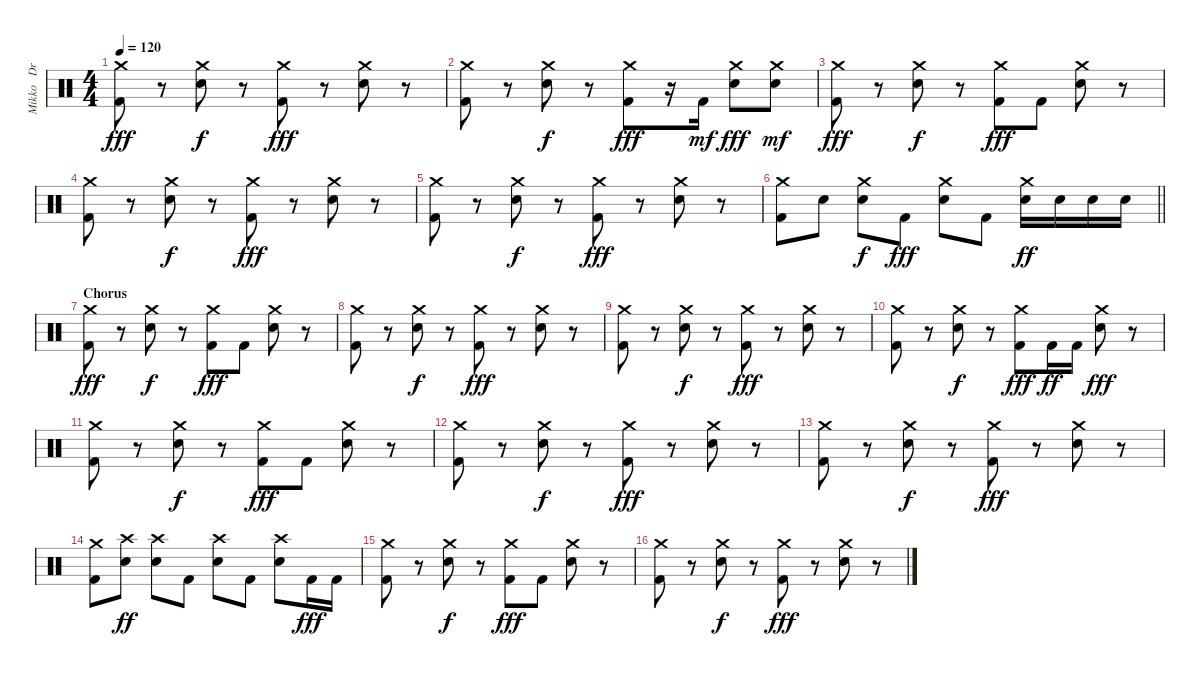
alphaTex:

\track ("Mikko   Drums" "Mikko   Dr") {instrument percussion}
\staff {score}
\articulation defaults
\ts (4 4)
\tempo 120
\clef neutral
\ks c
("Crash medium (hit)" "Kick (hit) 2").8{dy fff} r.8 ("Crash medium (hit)" "Snare (hit) 2").8{dy f} r.8 ("Crash medium (hit)" "Kick (hit) 2").8{dy fff} r.8 ("Crash medium (hit)" "Snare (hit) 2").8 r.8 |
("Crash medium (hit)" "Kick (hit) 2").8 r.8 ("Crash medium (hit)" "Snare (hit) 2").8{dy f} r.8 ("Crash medium (hit)" "Kick (hit) 2").8{dy fff} r.16 "Kick (hit) 2".16{dy mf} ("Crash medium (hit)" "Snare (hit) 2").8{dy fff} ("Crash medium (hit)" "Snare (hit) 2").8{dy mf} |
("Crash medium (hit)" "Kick (hit) 2").8{dy fff} r.8 ("Crash medium (hit)" "Snare (hit) 2").8{dy f} r.8 ("Crash medium (hit)" "Kick (hit) 2").8{dy fff} "Kick (hit) 2".8 ("Crash medium (hit)" "Snare (hit) 2").8 r.8 |
("Crash medium (hit)" "Kick (hit) 2").8 r.8 ("Crash medium (hit)" "Snare (hit) 2").8{dy f} r.8 ("Crash medium (hit)" "Kick (hit) 2").8{dy fff} r.8 ("Crash medium (hit)" "Snare (hit) 2").8 r.8 |
("Crash medium (hit)" "Kick (hit) 2").8 r.8 ("Crash medium (hit)" "Snare (hit) 2").8{dy f} r.8 ("Crash medium (hit)" "Kick (hit) 2").8{dy fff} r.8 ("Crash medium (hit)" "Snare (hit) 2").8 r.8 |
\barLineRight lightlight
("Crash medium (hit)" "Kick (hit) 2").8 "Snare (hit) 2".8 ("Crash medium (hit)" "Snare (hit) 2").8{dy f} "Kick (hit) 2".8{dy fff} ("Crash medium (hit)" "Snare (hit) 2").8 "Kick (hit) 2".8 ("Crash medium (hit)" "Snare (hit) 2").16{dy ff} "Snare (hit) 2".16 "Snare (hit) 2".16 "Snare (hit) 2".16 |
\section ("" "Chorus")
("Crash medium (hit)" "Kick (hit) 2").8{dy fff} r.8 ("Crash medium (hit)" "Snare (hit) 2").8{dy f} r.8 ("Crash medium (hit)" "Kick (hit) 2").8{dy fff} "Kick (hit) 2".8 ("Crash medium (hit)" "Snare (hit) 2").8 r.8 |
("Crash medium (hit)" "Kick (hit) 2").8 r.8 ("Crash medium (hit)" "Snare (hit) 2").8{dy f} r.8 ("Crash medium (hit)" "Kick (hit) 2").8{dy fff} r.8 ("Crash medium (hit)" "Snare (hit) 2").8 r.8 |
("Crash medium (hit)" "Kick (hit) 2").8 r.8 ("Crash medium (hit)" "Snare (hit) 2").8{dy f} r.8 ("Crash medium (hit)" "Kick (hit) 2").8{dy fff} r.8 ("Crash medium (hit)" "Snare (hit) 2").8 r.8 |
("Crash medium (hit)" "Kick (hit) 2").8 r.8 ("Crash medium (hit)" "Snare (hit) 2").8{dy f} r.8 ("Crash medium (hit)" "Kick (hit) 2").8{dy fff} "Kick (hit) 2".16{dy ff} "Kick (hit) 2".16 ("Crash medium (hit)" "Snare (hit) 2").8{dy fff} r.8 |
("Crash medium (hit)" "Kick (hit) 2").8 r.8 ("Crash medium (hit)" "Snare (hit) 2").8{dy f} r.8 ("Crash medium (hit)" "Kick (hit) 2").8{dy fff} "Kick (hit) 2".8 ("Crash medium (hit)" "Snare (hit) 2").8 r.8 |
("Crash medium (hit)" "Kick (hit) 2").8 r.8 ("Crash medium (hit)" "Snare (hit) 2").8{dy f} r.8 ("Crash medium (hit)" "Kick (hit) 2").8{dy fff} r.8 ("Crash medium (hit)" "Snare (hit) 2").8 r.8 |
("Crash medium (hit)" "Kick (hit) 2").8 r.8 ("Crash medium (hit)" "Snare (hit) 2").8{dy f} r.8 ("Crash medium (hit)" "Kick (hit) 2").8{dy fff} r.8 ("Crash medium (hit)" "Snare (hit) 2").8 r.8 |
("Crash medium (hit)" "Kick (hit) 2").8 ("Crash high (hit)" "Snare (hit) 2").8{dy ff} ("Crash high (hit)" "Snare (hit) 2").8 "Kick (hit) 2".8 ("Crash high (hit)" "Snare (hit) 2").8 "Kick (hit) 2".8 ("Crash high (hit)" "Snare (hit) 2").8 "Kick (hit) 2".16{dy fff} "Kick (hit) 2".16 |
("Crash medium (hit)" "Kick (hit) 2").8 r.8 ("Crash medium (hit)" "Snare (hit) 2").8{dy f} r.8 ("Crash medium (hit)" "Kick (hit) 2").8{dy fff} "Kick (hit) 2".8 ("Crash medium (hit)" "Snare (hit) 2").8 r.8 |
("Crash medium (hit)" "Kick (hit) 2").8 r.8 ("Crash medium (hit)" "Snare (hit) 2").8{dy f} r.8 ("Crash medium (hit)" "Kick (hit) 2").8{dy fff} r.8 ("Crash medium (hit)" "Snare (hit) 2").8 r.8
